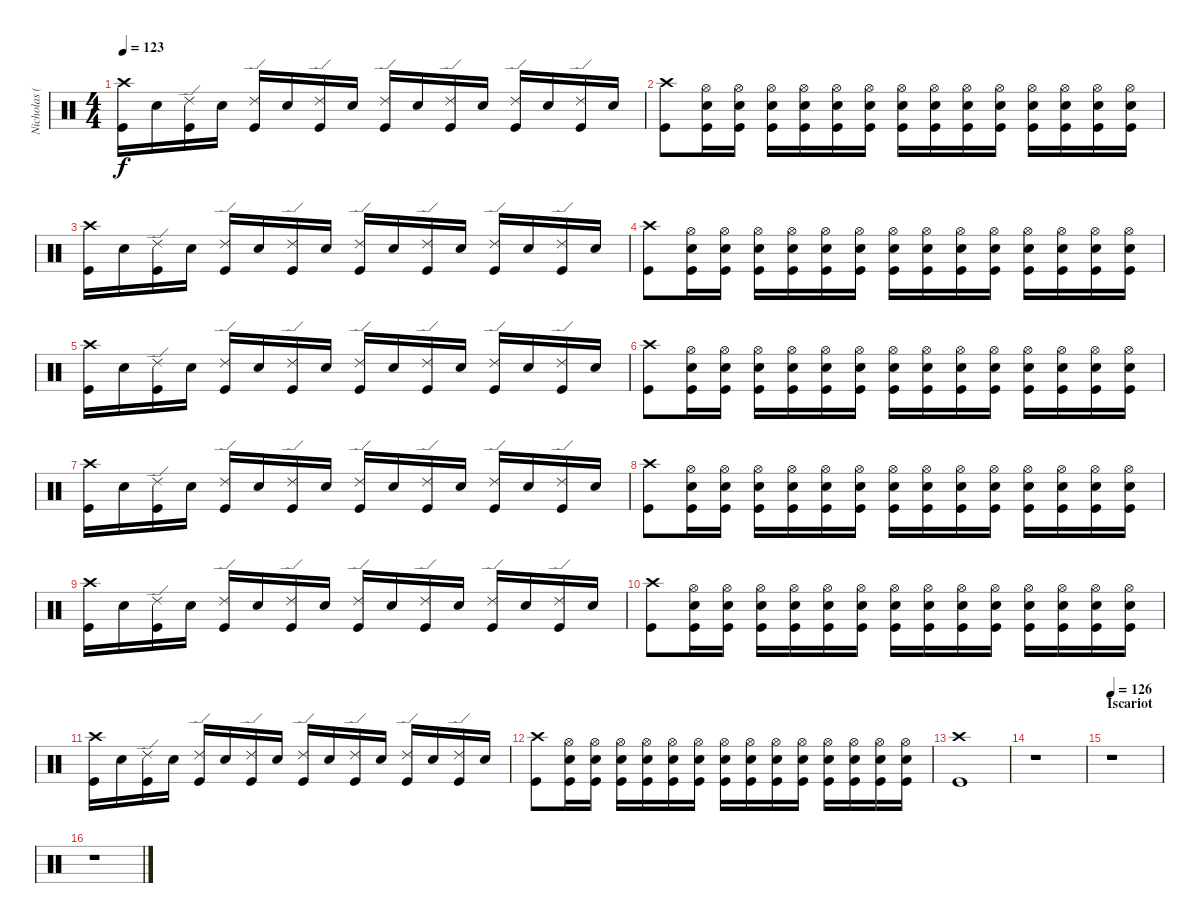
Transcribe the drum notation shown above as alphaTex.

\track ("Nicholas (Drums)" "Nicholas (") {instrument percussion}
\staff {score}
\articulation defaults
\ts (4 4)
\tempo 123
\clef neutral
\ks c
("Crash high (hit)" "Kick (hit)").16{dy f} "Electric Snare (hit)".16 ("Ride (edge) 2" "Kick (hit)").16 "Electric Snare (hit)".16 ("Ride (edge) 2" "Kick (hit)").16 "Electric Snare (hit)".16 ("Ride (edge) 2" "Kick (hit)").16 "Electric Snare (hit)".16 ("Ride (edge) 2" "Kick (hit)").16 "Electric Snare (hit)".16 ("Ride (edge) 2" "Kick (hit)").16 "Electric Snare (hit)".16 ("Ride (edge) 2" "Kick (hit)").16 "Electric Snare (hit)".16 ("Ride (edge) 2" "Kick (hit)").16 "Electric Snare (hit)".16 |
("Crash high (hit)" "Kick (hit)").8 ("Hi-Hat (open)" "Electric Snare (hit)" "Kick (hit)").16 ("Hi-Hat (open)" "Electric Snare (hit)" "Kick (hit)").16 ("Hi-Hat (open)" "Electric Snare (hit)" "Kick (hit)").16 ("Hi-Hat (open)" "Electric Snare (hit)" "Kick (hit)").16 ("Hi-Hat (open)" "Electric Snare (hit)" "Kick (hit)").16 ("Hi-Hat (open)" "Electric Snare (hit)" "Kick (hit)").16 ("Hi-Hat (open)" "Electric Snare (hit)" "Kick (hit)").16 ("Hi-Hat (open)" "Electric Snare (hit)" "Kick (hit)").16 ("Hi-Hat (open)" "Electric Snare (hit)" "Kick (hit)").16 ("Hi-Hat (open)" "Electric Snare (hit)" "Kick (hit)").16 ("Hi-Hat (open)" "Electric Snare (hit)" "Kick (hit)").16 ("Hi-Hat (open)" "Electric Snare (hit)" "Kick (hit)").16 ("Hi-Hat (open)" "Electric Snare (hit)" "Kick (hit)").16 ("Hi-Hat (open)" "Electric Snare (hit)" "Kick (hit)").16 |
("Crash high (hit)" "Kick (hit)").16 "Electric Snare (hit)".16 ("Ride (edge) 2" "Kick (hit)").16 "Electric Snare (hit)".16 ("Ride (edge) 2" "Kick (hit)").16 "Electric Snare (hit)".16 ("Ride (edge) 2" "Kick (hit)").16 "Electric Snare (hit)".16 ("Ride (edge) 2" "Kick (hit)").16 "Electric Snare (hit)".16 ("Ride (edge) 2" "Kick (hit)").16 "Electric Snare (hit)".16 ("Ride (edge) 2" "Kick (hit)").16 "Electric Snare (hit)".16 ("Ride (edge) 2" "Kick (hit)").16 "Electric Snare (hit)".16 |
("Crash high (hit)" "Kick (hit)").8 ("Hi-Hat (open)" "Electric Snare (hit)" "Kick (hit)").16 ("Hi-Hat (open)" "Electric Snare (hit)" "Kick (hit)").16 ("Hi-Hat (open)" "Electric Snare (hit)" "Kick (hit)").16 ("Hi-Hat (open)" "Electric Snare (hit)" "Kick (hit)").16 ("Hi-Hat (open)" "Electric Snare (hit)" "Kick (hit)").16 ("Hi-Hat (open)" "Electric Snare (hit)" "Kick (hit)").16 ("Hi-Hat (open)" "Electric Snare (hit)" "Kick (hit)").16 ("Hi-Hat (open)" "Electric Snare (hit)" "Kick (hit)").16 ("Hi-Hat (open)" "Electric Snare (hit)" "Kick (hit)").16 ("Hi-Hat (open)" "Electric Snare (hit)" "Kick (hit)").16 ("Hi-Hat (open)" "Electric Snare (hit)" "Kick (hit)").16 ("Hi-Hat (open)" "Electric Snare (hit)" "Kick (hit)").16 ("Hi-Hat (open)" "Electric Snare (hit)" "Kick (hit)").16 ("Hi-Hat (open)" "Electric Snare (hit)" "Kick (hit)").16 |
("Crash high (hit)" "Kick (hit)").16 "Electric Snare (hit)".16 ("Ride (edge) 2" "Kick (hit)").16 "Electric Snare (hit)".16 ("Ride (edge) 2" "Kick (hit)").16 "Electric Snare (hit)".16 ("Ride (edge) 2" "Kick (hit)").16 "Electric Snare (hit)".16 ("Ride (edge) 2" "Kick (hit)").16 "Electric Snare (hit)".16 ("Ride (edge) 2" "Kick (hit)").16 "Electric Snare (hit)".16 ("Ride (edge) 2" "Kick (hit)").16 "Electric Snare (hit)".16 ("Ride (edge) 2" "Kick (hit)").16 "Electric Snare (hit)".16 |
("Crash high (hit)" "Kick (hit)").8 ("Hi-Hat (open)" "Electric Snare (hit)" "Kick (hit)").16 ("Hi-Hat (open)" "Electric Snare (hit)" "Kick (hit)").16 ("Hi-Hat (open)" "Electric Snare (hit)" "Kick (hit)").16 ("Hi-Hat (open)" "Electric Snare (hit)" "Kick (hit)").16 ("Hi-Hat (open)" "Electric Snare (hit)" "Kick (hit)").16 ("Hi-Hat (open)" "Electric Snare (hit)" "Kick (hit)").16 ("Hi-Hat (open)" "Electric Snare (hit)" "Kick (hit)").16 ("Hi-Hat (open)" "Electric Snare (hit)" "Kick (hit)").16 ("Hi-Hat (open)" "Electric Snare (hit)" "Kick (hit)").16 ("Hi-Hat (open)" "Electric Snare (hit)" "Kick (hit)").16 ("Hi-Hat (open)" "Electric Snare (hit)" "Kick (hit)").16 ("Hi-Hat (open)" "Electric Snare (hit)" "Kick (hit)").16 ("Hi-Hat (open)" "Electric Snare (hit)" "Kick (hit)").16 ("Hi-Hat (open)" "Electric Snare (hit)" "Kick (hit)").16 |
("Crash high (hit)" "Kick (hit)").16 "Electric Snare (hit)".16 ("Ride (edge) 2" "Kick (hit)").16 "Electric Snare (hit)".16 ("Ride (edge) 2" "Kick (hit)").16 "Electric Snare (hit)".16 ("Ride (edge) 2" "Kick (hit)").16 "Electric Snare (hit)".16 ("Ride (edge) 2" "Kick (hit)").16 "Electric Snare (hit)".16 ("Ride (edge) 2" "Kick (hit)").16 "Electric Snare (hit)".16 ("Ride (edge) 2" "Kick (hit)").16 "Electric Snare (hit)".16 ("Ride (edge) 2" "Kick (hit)").16 "Electric Snare (hit)".16 |
("Crash high (hit)" "Kick (hit)").8 ("Hi-Hat (open)" "Electric Snare (hit)" "Kick (hit)").16 ("Hi-Hat (open)" "Electric Snare (hit)" "Kick (hit)").16 ("Hi-Hat (open)" "Electric Snare (hit)" "Kick (hit)").16 ("Hi-Hat (open)" "Electric Snare (hit)" "Kick (hit)").16 ("Hi-Hat (open)" "Electric Snare (hit)" "Kick (hit)").16 ("Hi-Hat (open)" "Electric Snare (hit)" "Kick (hit)").16 ("Hi-Hat (open)" "Electric Snare (hit)" "Kick (hit)").16 ("Hi-Hat (open)" "Electric Snare (hit)" "Kick (hit)").16 ("Hi-Hat (open)" "Electric Snare (hit)" "Kick (hit)").16 ("Hi-Hat (open)" "Electric Snare (hit)" "Kick (hit)").16 ("Hi-Hat (open)" "Electric Snare (hit)" "Kick (hit)").16 ("Hi-Hat (open)" "Electric Snare (hit)" "Kick (hit)").16 ("Hi-Hat (open)" "Electric Snare (hit)" "Kick (hit)").16 ("Hi-Hat (open)" "Electric Snare (hit)" "Kick (hit)").16 |
("Crash high (hit)" "Kick (hit)").16 "Electric Snare (hit)".16 ("Ride (edge) 2" "Kick (hit)").16 "Electric Snare (hit)".16 ("Ride (edge) 2" "Kick (hit)").16 "Electric Snare (hit)".16 ("Ride (edge) 2" "Kick (hit)").16 "Electric Snare (hit)".16 ("Ride (edge) 2" "Kick (hit)").16 "Electric Snare (hit)".16 ("Ride (edge) 2" "Kick (hit)").16 "Electric Snare (hit)".16 ("Ride (edge) 2" "Kick (hit)").16 "Electric Snare (hit)".16 ("Ride (edge) 2" "Kick (hit)").16 "Electric Snare (hit)".16 |
("Crash high (hit)" "Kick (hit)").8 ("Hi-Hat (open)" "Electric Snare (hit)" "Kick (hit)").16 ("Hi-Hat (open)" "Electric Snare (hit)" "Kick (hit)").16 ("Hi-Hat (open)" "Electric Snare (hit)" "Kick (hit)").16 ("Hi-Hat (open)" "Electric Snare (hit)" "Kick (hit)").16 ("Hi-Hat (open)" "Electric Snare (hit)" "Kick (hit)").16 ("Hi-Hat (open)" "Electric Snare (hit)" "Kick (hit)").16 ("Hi-Hat (open)" "Electric Snare (hit)" "Kick (hit)").16 ("Hi-Hat (open)" "Electric Snare (hit)" "Kick (hit)").16 ("Hi-Hat (open)" "Electric Snare (hit)" "Kick (hit)").16 ("Hi-Hat (open)" "Electric Snare (hit)" "Kick (hit)").16 ("Hi-Hat (open)" "Electric Snare (hit)" "Kick (hit)").16 ("Hi-Hat (open)" "Electric Snare (hit)" "Kick (hit)").16 ("Hi-Hat (open)" "Electric Snare (hit)" "Kick (hit)").16 ("Hi-Hat (open)" "Electric Snare (hit)" "Kick (hit)").16 |
("Crash high (hit)" "Kick (hit)").16 "Electric Snare (hit)".16 ("Ride (edge) 2" "Kick (hit)").16 "Electric Snare (hit)".16 ("Ride (edge) 2" "Kick (hit)").16 "Electric Snare (hit)".16 ("Ride (edge) 2" "Kick (hit)").16 "Electric Snare (hit)".16 ("Ride (edge) 2" "Kick (hit)").16 "Electric Snare (hit)".16 ("Ride (edge) 2" "Kick (hit)").16 "Electric Snare (hit)".16 ("Ride (edge) 2" "Kick (hit)").16 "Electric Snare (hit)".16 ("Ride (edge) 2" "Kick (hit)").16 "Electric Snare (hit)".16 |
("Crash high (hit)" "Kick (hit)").8 ("Hi-Hat (open)" "Electric Snare (hit)" "Kick (hit)").16 ("Hi-Hat (open)" "Electric Snare (hit)" "Kick (hit)").16 ("Hi-Hat (open)" "Electric Snare (hit)" "Kick (hit)").16 ("Hi-Hat (open)" "Electric Snare (hit)" "Kick (hit)").16 ("Hi-Hat (open)" "Electric Snare (hit)" "Kick (hit)").16 ("Hi-Hat (open)" "Electric Snare (hit)" "Kick (hit)").16 ("Hi-Hat (open)" "Electric Snare (hit)" "Kick (hit)").16 ("Hi-Hat (open)" "Electric Snare (hit)" "Kick (hit)").16 ("Hi-Hat (open)" "Electric Snare (hit)" "Kick (hit)").16 ("Hi-Hat (open)" "Electric Snare (hit)" "Kick (hit)").16 ("Hi-Hat (open)" "Electric Snare (hit)" "Kick (hit)").16 ("Hi-Hat (open)" "Electric Snare (hit)" "Kick (hit)").16 ("Hi-Hat (open)" "Electric Snare (hit)" "Kick (hit)").16 ("Hi-Hat (open)" "Electric Snare (hit)" "Kick (hit)").16 |
("Crash high (hit)" "Kick (hit)").1 |
r.1 |
\section ("" "Iscariot")
\tempo 126
r.1 |
r.1
